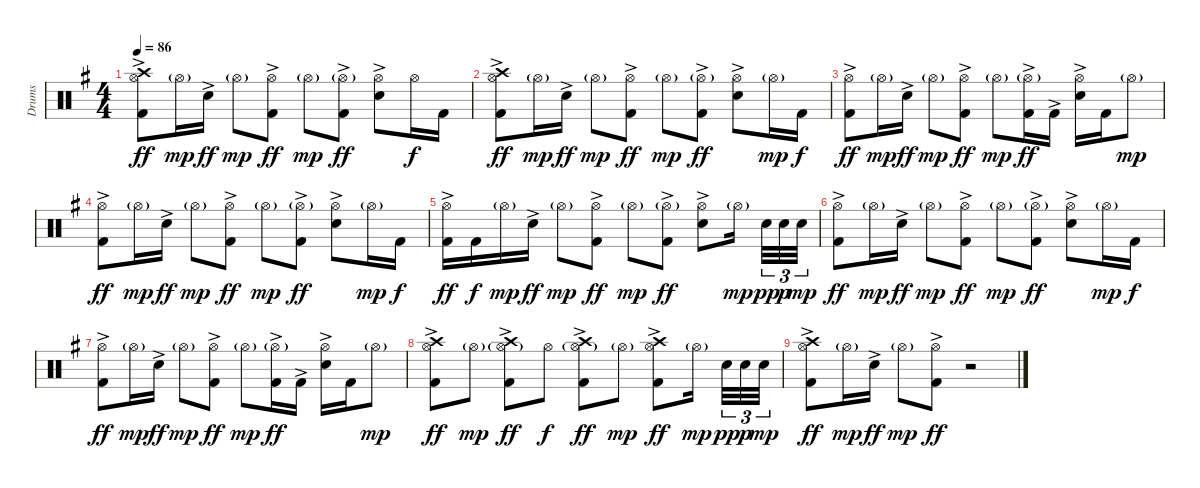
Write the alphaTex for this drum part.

\track ("Drums" "Drums") {instrument percussion}
\staff {score}
\articulation defaults
\ts (4 4)
\tempo 86
\clef neutral
\ks g
("Hi-Hat (open)" "Crash high (hit)" "Kick (hit) 2"{ac}).8{dy ff} "Hi-Hat (open)"{g}.16{dy mp} "Snare (hit) 2"{ac}.16{dy ff} "Hi-Hat (open)"{g}.8{dy mp} ("Hi-Hat (open)" "Kick (hit) 2"{ac}).8{dy ff} "Hi-Hat (open)"{g}.8{dy mp} ("Hi-Hat (open)"{g} "Kick (hit) 2"{ac}).8{dy ff} ("Hi-Hat (open)" "Snare (hit) 2"{ac}).8 "Hi-Hat (open)".16{dy f} "Kick (hit) 2".16 |
("Hi-Hat (open)" "Crash high (hit)" "Kick (hit) 2"{ac}).8{dy ff} "Hi-Hat (open)"{g}.16{dy mp} "Snare (hit) 2"{ac}.16{dy ff} "Hi-Hat (open)"{g}.8{dy mp} ("Hi-Hat (open)" "Kick (hit) 2"{ac}).8{dy ff} "Hi-Hat (open)"{g}.8{dy mp} ("Hi-Hat (open)"{g} "Kick (hit) 2"{ac}).8{dy ff} ("Hi-Hat (open)" "Snare (hit) 2"{ac}).8 "Hi-Hat (open)"{g}.16{dy mp} "Kick (hit) 2".16{dy f} |
("Hi-Hat (open)" "Kick (hit) 2"{ac}).8{dy ff} "Hi-Hat (open)"{g}.16{dy mp} "Snare (hit) 2"{ac}.16{dy ff} "Hi-Hat (open)"{g}.8{dy mp} ("Hi-Hat (open)" "Kick (hit) 2"{ac}).8{dy ff} "Hi-Hat (open)"{g}.8{dy mp} ("Hi-Hat (open)"{g} "Kick (hit) 2"{ac}).16{dy ff} "Kick (hit) 2"{ac}.16 ("Hi-Hat (open)" "Snare (hit) 2"{ac}).16 "Kick (hit) 2".16 "Hi-Hat (open)"{g}.8{dy mp} |
("Hi-Hat (open)" "Kick (hit) 2"{ac}).8{dy ff} "Hi-Hat (open)"{g}.16{dy mp} "Snare (hit) 2"{ac}.16{dy ff} "Hi-Hat (open)"{g}.8{dy mp} ("Hi-Hat (open)" "Kick (hit) 2"{ac}).8{dy ff} "Hi-Hat (open)"{g}.8{dy mp} ("Hi-Hat (open)"{g} "Kick (hit) 2"{ac}).8{dy ff} ("Hi-Hat (open)" "Snare (hit) 2"{ac}).8 "Hi-Hat (open)"{g}.16{dy mp} "Kick (hit) 2".16{dy f} |
("Hi-Hat (open)" "Kick (hit) 2"{ac}).16{dy ff} "Kick (hit) 2".16{dy f} "Hi-Hat (open)"{g}.16{dy mp} "Snare (hit) 2"{ac}.16{dy ff} "Hi-Hat (open)"{g}.8{dy mp} ("Hi-Hat (open)" "Kick (hit) 2"{ac}).8{dy ff} "Hi-Hat (open)"{g}.8{dy mp} ("Hi-Hat (open)"{g} "Kick (hit) 2"{ac}).8{dy ff} ("Hi-Hat (open)" "Snare (hit) 2"{ac}).8 "Hi-Hat (open)"{g}.16{dy mp beam splitsecondary} "Snare (hit) 2".32{tu (3 2) dy pp} "Snare (hit) 2".32{tu (3 2) dy p} "Snare (hit) 2".32{tu (3 2) dy mp} |
("Hi-Hat (open)" "Kick (hit) 2"{ac}).8{dy ff} "Hi-Hat (open)"{g}.16{dy mp} "Snare (hit) 2"{ac}.16{dy ff} "Hi-Hat (open)"{g}.8{dy mp} ("Hi-Hat (open)" "Kick (hit) 2"{ac}).8{dy ff} "Hi-Hat (open)"{g}.8{dy mp} ("Hi-Hat (open)"{g} "Kick (hit) 2"{ac}).8{dy ff} ("Hi-Hat (open)" "Snare (hit) 2"{ac}).8 "Hi-Hat (open)"{g}.16{dy mp} "Kick (hit) 2".16{dy f} |
("Hi-Hat (open)" "Kick (hit) 2"{ac}).8{dy ff} "Hi-Hat (open)"{g}.16{dy mp} "Snare (hit) 2"{ac}.16{dy ff} "Hi-Hat (open)"{g}.8{dy mp} ("Hi-Hat (open)" "Kick (hit) 2"{ac}).8{dy ff} "Hi-Hat (open)"{g}.8{dy mp} ("Hi-Hat (open)"{g} "Kick (hit) 2"{ac}).16{dy ff} "Kick (hit) 2"{ac}.16 ("Hi-Hat (open)" "Snare (hit) 2"{ac}).16 "Kick (hit) 2".16 "Hi-Hat (open)"{g}.8{dy mp} |
("Hi-Hat (open)" "Crash high (hit)" "Kick (hit) 2"{ac}).8{dy ff} "Hi-Hat (open)"{g}.8{dy mp} ("Hi-Hat (open)"{g} "Crash high (hit)" "Kick (hit) 2"{ac}).8{dy ff} "Hi-Hat (open)".8{dy f} ("Hi-Hat (open)"{g} "Crash high (hit)" "Kick (hit) 2"{ac}).8{dy ff} "Hi-Hat (open)"{g}.8{dy mp} ("Hi-Hat (open)" "Crash high (hit)" "Kick (hit) 2"{ac}).8{dy ff} "Hi-Hat (open)"{g}.16{dy mp beam splitsecondary} "Snare (hit) 2".32{tu (3 2) dy pp} "Snare (hit) 2".32{tu (3 2) dy p} "Snare (hit) 2".32{tu (3 2) dy mp} |
("Hi-Hat (open)" "Crash high (hit)" "Kick (hit) 2"{ac}).8{dy ff} "Hi-Hat (open)"{g}.16{dy mp} "Snare (hit) 2"{ac}.16{dy ff} "Hi-Hat (open)"{g}.8{dy mp} ("Hi-Hat (open)" "Kick (hit) 2"{ac}).8{dy ff} r.2
